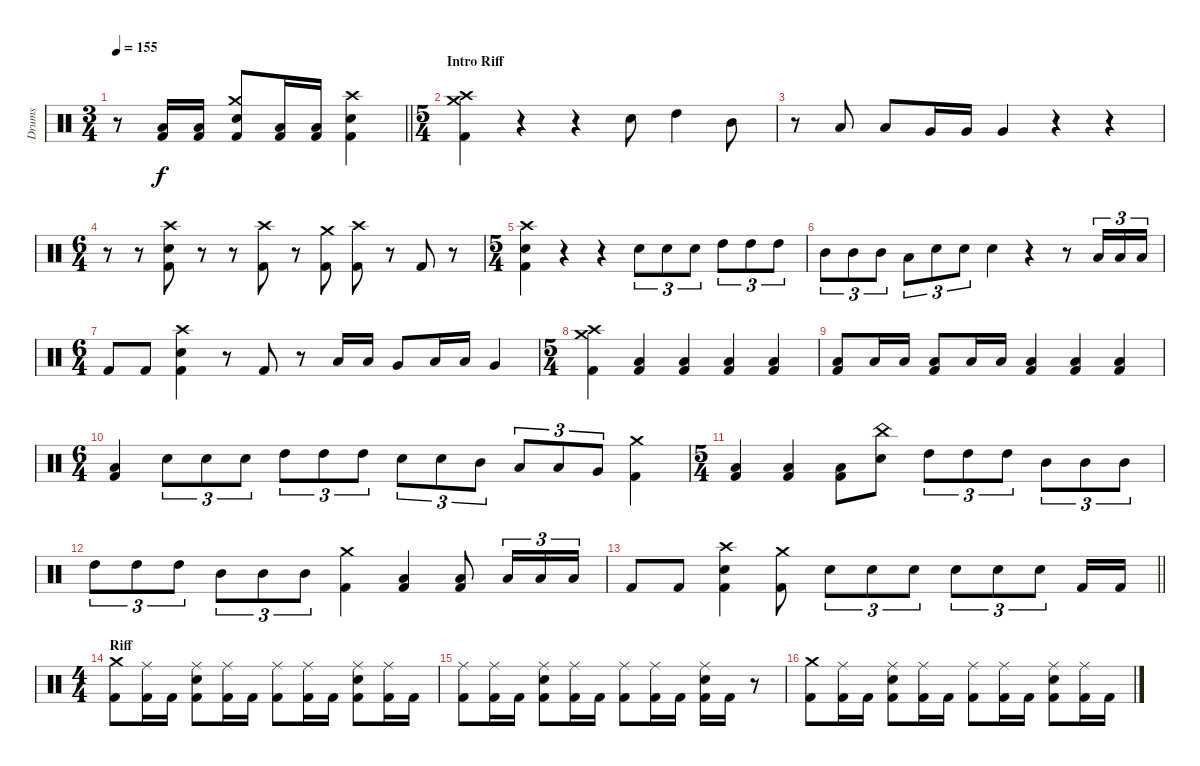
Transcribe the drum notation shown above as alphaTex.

\track ("Drums" "Drums") {instrument percussion}
\staff {score}
\articulation defaults
\ts (3 4)
\section ("" "")
\tempo 155
\clef neutral
\barLineRight lightlight
\ks c
r.8{dy f} ("Low Tom (hit)" "Kick (hit) 2").16 ("Low Tom (hit)" "Kick (hit) 2").16 ("Crash medium (hit)" "Electric Snare (hit)" "Kick (hit) 2").8 ("Low Tom (hit)" "Kick (hit) 2").16 ("Low Tom (hit)" "Kick (hit) 2").16 ("Crash high (hit)" "Electric Snare (hit)" "Kick (hit) 2").4 |
\ts (5 4)
\section ("" "Intro Riff")
("Crash high (hit)" "Crash medium (hit)" "Kick (hit) 2").4 r.4 r.4 "Electric Snare (hit)".8 "High Tom (hit)".4 "Mid Tom (hit)".8 |
r.8 "Low Tom (hit)".8 "Low Tom (hit)".8 "Very Low Tom (hit)".16 "Very Low Tom (hit)".16 "Very Low Tom (hit)".4 r.4 r.4 |
\ts (6 4)
r.8 r.8 ("Crash high (hit)" "Electric Snare (hit)" "Kick (hit) 2").8 r.8 r.8 ("Crash high (hit)" "Kick (hit) 2").8 r.8 ("Crash medium (hit)" "Kick (hit) 2").8 ("Crash high (hit)" "Kick (hit) 2").8 r.8 "Kick (hit) 2".8 r.8 |
\ts (5 4)
("Crash high (hit)" "Electric Snare (hit)" "Kick (hit) 2").4 r.4 r.4 "Electric Snare (hit)".8{tu (3 2)} "Electric Snare (hit)".8{tu (3 2)} "Electric Snare (hit)".8{tu (3 2)} "High Tom (hit)".8{tu (3 2)} "High Tom (hit)".8{tu (3 2)} "High Tom (hit)".8{tu (3 2)} |
"Mid Tom (hit)".8{tu (3 2)} "Mid Tom (hit)".8{tu (3 2)} "Mid Tom (hit)".8{tu (3 2)} "Low Tom (hit)".8{tu (3 2)} "Electric Snare (hit)".8{tu (3 2)} "Electric Snare (hit)".8{tu (3 2)} "Electric Snare (hit)".4 r.4 r.8 "Low Tom (hit)".16{tu (3 2)} "Low Tom (hit)".16{tu (3 2)} "Low Tom (hit)".16{tu (3 2)} |
\ts (6 4)
"Kick (hit) 2".8 "Kick (hit) 2".8 ("Crash high (hit)" "Electric Snare (hit)" "Kick (hit) 2").4 r.8 "Kick (hit) 2".8 r.8 "Low Tom (hit)".16 "Low Tom (hit)".16 "Very Low Tom (hit)".8 "Low Tom (hit)".16 "Low Tom (hit)".16 "Very Low Tom (hit)".4 |
\ts (5 4)
("Crash high (hit)" "Crash medium (hit)" "Kick (hit) 2").4 ("Low Tom (hit)" "Kick (hit) 2").4 ("Low Tom (hit)" "Kick (hit) 2").4 ("Low Tom (hit)" "Kick (hit) 2").4 ("Low Tom (hit)" "Kick (hit) 2").4 |
("Low Tom (hit)" "Kick (hit) 2").8 "Low Tom (hit)".16 "Low Tom (hit)".16 ("Low Tom (hit)" "Kick (hit) 2").8 "Low Tom (hit)".16 "Low Tom (hit)".16 ("Low Tom (hit)" "Kick (hit) 2").4 ("Low Tom (hit)" "Kick (hit) 2").4 ("Low Tom (hit)" "Kick (hit) 2").4 |
\ts (6 4)
("Low Tom (hit)" "Kick (hit) 2").4 "Electric Snare (hit)".8{tu (3 2)} "Electric Snare (hit)".8{tu (3 2)} "Electric Snare (hit)".8{tu (3 2)} "High Tom (hit)".8{tu (3 2)} "High Tom (hit)".8{tu (3 2)} "High Tom (hit)".8{tu (3 2)} "Electric Snare (hit)".8{tu (3 2)} "Electric Snare (hit)".8{tu (3 2)} "Mid Tom (hit)".8{tu (3 2)} "Low Tom (hit)".8{tu (3 2)} "Low Tom (hit)".8{tu (3 2)} "Very Low Tom (hit)".8{tu (3 2)} ("Crash medium (hit)" "Kick (hit) 2").4 |
\ts (5 4)
("Low Tom (hit)" "Kick (hit) 2").4 ("Low Tom (hit)" "Kick (hit) 2").4 ("Low Tom (hit)" "Kick (hit) 2").8 ("China (hit)" "Electric Snare (hit)").8 "High Tom (hit)".8{tu (3 2)} "High Tom (hit)".8{tu (3 2)} "High Tom (hit)".8{tu (3 2)} "Mid Tom (hit)".8{tu (3 2)} "Mid Tom (hit)".8{tu (3 2)} "Mid Tom (hit)".8{tu (3 2)} |
"High Tom (hit)".8{tu (3 2)} "High Tom (hit)".8{tu (3 2)} "High Tom (hit)".8{tu (3 2)} "Mid Tom (hit)".8{tu (3 2)} "Mid Tom (hit)".8{tu (3 2)} "Mid Tom (hit)".8{tu (3 2)} ("Crash medium (hit)" "Kick (hit) 2").4 ("Low Tom (hit)" "Kick (hit) 2").4 ("Low Tom (hit)" "Kick (hit) 2").8 "Low Tom (hit)".16{tu (3 2)} "Low Tom (hit)".16{tu (3 2)} "Low Tom (hit)".16{tu (3 2)} |
\barLineRight lightlight "Kick (hit) 2".8 "Kick (hit) 2".8
("Crash high (hit)" "Electric Snare (hit)" "Kick (hit) 2").4 ("Crash medium (hit)" "Kick (hit) 2").8 "Electric Snare (hit)".8{tu (3 2)} "Electric Snare (hit)".8{tu (3 2)} "Electric Snare (hit)".8{tu (3 2)} "Electric Snare (hit)".8{tu (3 2)} "Electric Snare (hit)".8{tu (3 2)} "Electric Snare (hit)".8{tu (3 2)} "Kick (hit) 2".16 "Kick (hit) 2".16 |
\ts (4 4)
\section ("" "Riff")
("Crash medium (hit)" "Kick (hit) 2").8 ("Ride (middle)" "Kick (hit) 2").16 "Kick (hit) 2".16 ("Ride (middle)" "Electric Snare (hit)" "Kick (hit) 2").8 ("Ride (middle)" "Kick (hit) 2").16 "Kick (hit) 2".16 ("Ride (middle)" "Kick (hit) 2").8 ("Ride (middle)" "Kick (hit) 2").16 "Kick (hit) 2".16 ("Ride (middle)" "Electric Snare (hit)" "Kick (hit) 2").8 ("Ride (middle)" "Kick (hit) 2").16 "Kick (hit) 2".16 |
("Ride (middle)" "Kick (hit) 2").8 ("Ride (middle)" "Kick (hit) 2").16 "Kick (hit) 2".16 ("Ride (middle)" "Electric Snare (hit)" "Kick (hit) 2").8 ("Ride (middle)" "Kick (hit) 2").16 "Kick (hit) 2".16 ("Ride (middle)" "Kick (hit) 2").8 ("Ride (middle)" "Kick (hit) 2").16 "Kick (hit) 2".16 ("Ride (middle)" "Electric Snare (hit)" "Kick (hit) 2").16 "Kick (hit) 2".16 r.8 |
("Crash medium (hit)" "Kick (hit) 2").8 ("Ride (middle)" "Kick (hit) 2").16 "Kick (hit) 2".16 ("Ride (middle)" "Electric Snare (hit)" "Kick (hit) 2").8 ("Ride (middle)" "Kick (hit) 2").16 "Kick (hit) 2".16 ("Ride (middle)" "Kick (hit) 2").8 ("Ride (middle)" "Kick (hit) 2").16 "Kick (hit) 2".16 ("Ride (middle)" "Electric Snare (hit)" "Kick (hit) 2").8 ("Ride (middle)" "Kick (hit) 2").16 "Kick (hit) 2".16
